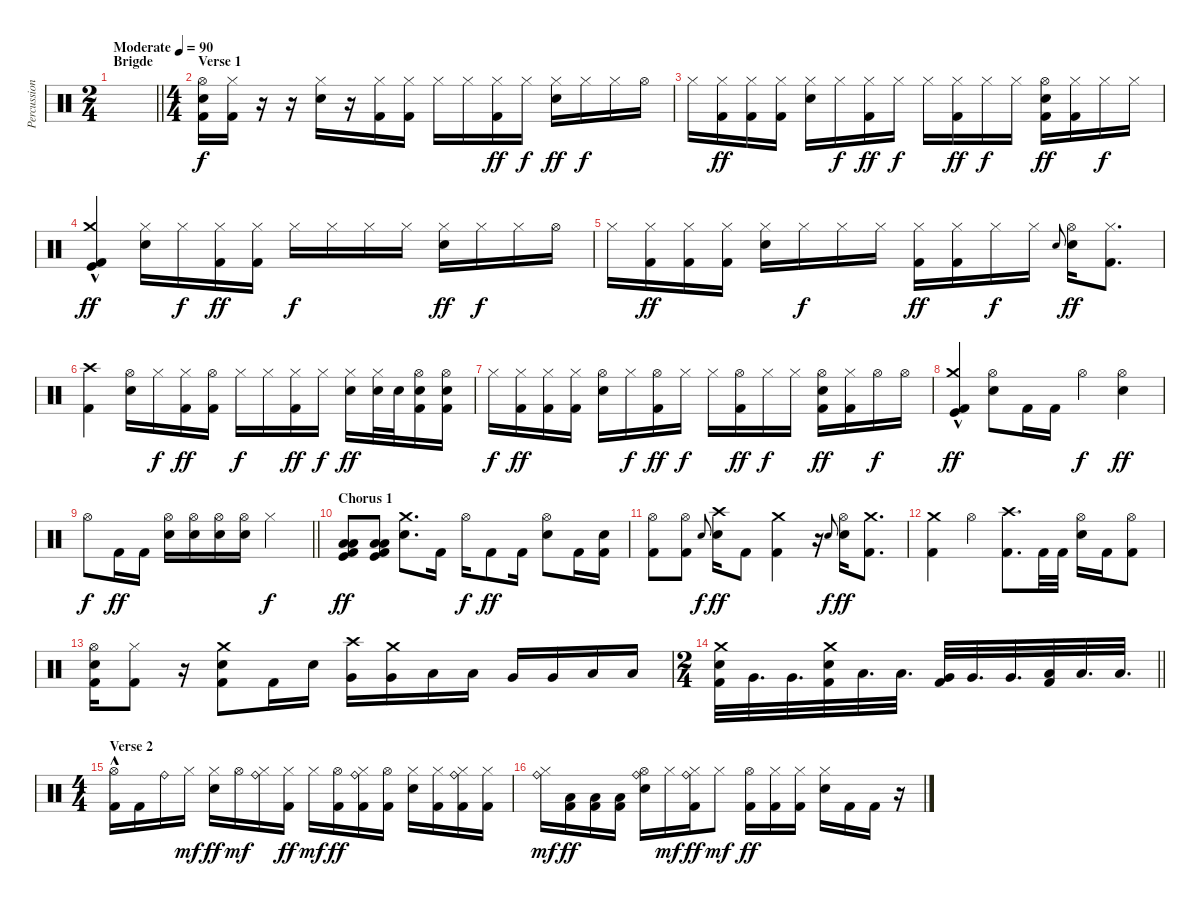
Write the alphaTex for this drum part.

\track ("Percussion" "Percussion") {instrument percussion}
\staff {score}
\articulation defaults
\ts (2 4)
\section ("" "Brigde")
\tempo (90 "Moderate")
\clef neutral
\barLineRight lightlight
\ks c
|
\ts (4 4)
\section ("" "Verse 1")
("Hi-Hat (open)" "Electric Snare (hit)" "Kick (hit) 2").16 ("Hi-Hat (closed)" "Kick (hit) 2").16 r.16 r.16 ("Hi-Hat (closed)" "Electric Snare (hit)").16 r.16 ("Hi-Hat (closed)" "Kick (hit) 2").16 ("Hi-Hat (closed)" "Kick (hit) 2").16 "Hi-Hat (closed)".16{dy f} "Hi-Hat (closed)".16 ("Hi-Hat (closed)" "Kick (hit) 2").16{dy ff} "Hi-Hat (closed)".16{dy f} ("Hi-Hat (closed)" "Electric Snare (hit)").16{dy ff} "Hi-Hat (closed)".16{dy f} "Hi-Hat (closed)".16 "Hi-Hat (open)".16 |
"Hi-Hat (closed)".16 ("Hi-Hat (closed)" "Kick (hit) 2").16{dy ff} ("Hi-Hat (closed)" "Kick (hit) 2").16 ("Hi-Hat (closed)" "Kick (hit) 2").16 ("Hi-Hat (closed)" "Electric Snare (hit)").16 "Hi-Hat (closed)".16{dy f} ("Hi-Hat (closed)" "Kick (hit) 2").16{dy ff} "Hi-Hat (closed)".16{dy f} "Hi-Hat (closed)".16 ("Hi-Hat (closed)" "Kick (hit) 2").16{dy ff} "Hi-Hat (closed)".16{dy f} "Hi-Hat (closed)".16 ("Hi-Hat (open)" "Electric Snare (hit)" "Kick (hit) 2").16{dy ff} ("Hi-Hat (closed)" "Kick (hit) 2").16 "Hi-Hat (closed)".16{dy f} "Hi-Hat (closed)".16 |
("Crash medium (hit)"{hac} "Kick (hit)" "Kick (hit) 2").4{dy ff} ("Hi-Hat (closed)" "Electric Snare (hit)").16 "Hi-Hat (closed)".16{dy f} ("Hi-Hat (closed)" "Kick (hit) 2").16{dy ff} ("Hi-Hat (closed)" "Kick (hit) 2").16 "Hi-Hat (closed)".16{dy f} "Hi-Hat (closed)".16 "Hi-Hat (closed)".16 "Hi-Hat (closed)".16 ("Hi-Hat (closed)" "Electric Snare (hit)").16{dy ff} "Hi-Hat (closed)".16{dy f} "Hi-Hat (closed)".16 "Hi-Hat (open)".16 |
"Hi-Hat (closed)".16 ("Hi-Hat (closed)" "Kick (hit) 2").16{dy ff} ("Hi-Hat (closed)" "Kick (hit) 2").16 ("Hi-Hat (closed)" "Kick (hit) 2").16 ("Hi-Hat (closed)" "Electric Snare (hit)").16 "Hi-Hat (closed)".16{dy f} "Hi-Hat (closed)".16 "Hi-Hat (closed)".16 ("Hi-Hat (closed)" "Kick (hit) 2").16{dy ff} ("Hi-Hat (closed)" "Kick (hit) 2").16 "Hi-Hat (closed)".16{dy f} "Hi-Hat (closed)".16 "Electric Snare (hit)".8{gr onbeat} ("Hi-Hat (open)" "Electric Snare (hit)").16{dy ff} ("Hi-Hat (closed)" "Kick (hit) 2").8{d} |
("Crash high (hit)" "Kick (hit) 2").4 ("Hi-Hat (open)" "Electric Snare (hit)").16 "Hi-Hat (closed)".16{dy f} ("Hi-Hat (closed)" "Kick (hit) 2").16{dy ff} ("Hi-Hat (open)" "Kick (hit) 2").16 "Hi-Hat (closed)".16{dy f} "Hi-Hat (closed)".16 ("Hi-Hat (closed)" "Kick (hit) 2").16{dy ff} "Hi-Hat (closed)".16{dy f} ("Hi-Hat (closed)" "Electric Snare (hit)").16{dy ff} ("Hi-Hat (closed)" "Electric Snare (hit)").32 "Electric Snare (hit)".32 ("Hi-Hat (open)" "Electric Snare (hit)" "Kick (hit) 2").16 ("Hi-Hat (open)" "Electric Snare (hit)" "Kick (hit) 2").16 |
"Hi-Hat (closed)".16{dy f} ("Hi-Hat (closed)" "Kick (hit) 2").16{dy ff} ("Hi-Hat (closed)" "Kick (hit) 2").16 ("Hi-Hat (closed)" "Kick (hit) 2").16 ("Hi-Hat (open)" "Electric Snare (hit)").16 "Hi-Hat (closed)".16{dy f} ("Hi-Hat (open)" "Kick (hit) 2").16{dy ff} "Hi-Hat (closed)".16{dy f} "Hi-Hat (closed)".16 ("Hi-Hat (open)" "Kick (hit) 2").16{dy ff} "Hi-Hat (closed)".16{dy f} "Hi-Hat (closed)".16 ("Hi-Hat (open)" "Electric Snare (hit)" "Kick (hit) 2").16{dy ff} ("Hi-Hat (closed)" "Kick (hit) 2").16 "Hi-Hat (open)".16{dy f} "Hi-Hat (open)".16 |
("Crash medium (hit)"{hac} "Kick (hit)" "Kick (hit) 2").4{dy ff} ("Hi-Hat (open)" "Electric Snare (hit)").8 "Kick (hit) 2".16 "Kick (hit) 2".16 "Hi-Hat (open)".4{dy f} ("Hi-Hat (open)" "Electric Snare (hit)").4{dy ff} |
\barLineRight lightlight "Hi-Hat (open)".8{dy f} "Kick (hit) 2".16{dy ff} "Kick (hit) 2".16
("Hi-Hat (open)" "Electric Snare (hit)").16 ("Hi-Hat (open)" "Electric Snare (hit)").16 ("Hi-Hat (open)" "Electric Snare (hit)").16 ("Hi-Hat (open)" "Electric Snare (hit)").16 "Hi-Hat (closed)".2{dy f} |
\section ("" "Chorus 1")
("Low Tom (hit)" "Low Floor Tom (hit)" "Kick (hit)" "Kick (hit) 2").8{dy ff} ("Low Tom (hit)" "Low Floor Tom (hit)" "Kick (hit)" "Kick (hit) 2").8 ("Crash medium (hit)" "Electric Snare (hit)").8{d} "Kick (hit) 2".16 "Hi-Hat (open)".16{dy f} "Kick (hit) 2".8{dy ff} "Kick (hit) 2".16 ("Hi-Hat (open)" "Electric Snare (hit)").8 "Kick (hit) 2".16 ("Electric Snare (hit)" "Kick (hit) 2").16 |
("Hi-Hat (open)" "Kick (hit) 2").8 ("Hi-Hat (open)" "Kick (hit) 2").8 "Electric Snare (hit)".8{gr onbeat dy f} ("Crash high (hit)" "Electric Snare (hit)").16{dy ff} "Kick (hit) 2".8 ("Crash medium (hit)" "Kick (hit) 2").4 r.16 "Electric Snare (hit)".8{gr onbeat dy f} ("Hi-Hat (open)" "Electric Snare (hit)").16{dy ff} ("Crash medium (hit)" "Kick (hit) 2").8{d} |
("Crash medium (hit)" "Kick (hit) 2").4 "Hi-Hat (open)".4 ("Crash high (hit)" "Kick (hit) 2").8{d} "Kick (hit) 2".32 "Kick (hit) 2".32 ("Hi-Hat (open)" "Electric Snare (hit)").16 "Kick (hit) 2".16 ("Hi-Hat (open)" "Kick (hit) 2").8 |
("Hi-Hat (open)" "Electric Snare (hit)" "Kick (hit) 2").16 ("Hi-Hat (closed)" "Kick (hit) 2").8 r.16 ("Crash medium (hit)" "Electric Snare (hit)" "Kick (hit) 2").8 "Kick (hit) 2".16 "Electric Snare (hit)".16 ("Crash high (hit)" "Very Low Tom (hit)").16 ("Crash medium (hit)" "Very Low Tom (hit)").16 "Low Tom (hit)".16 "Low Tom (hit)".16 "Very Low Tom (hit)".16 "Very Low Tom (hit)".16 "Low Floor Tom (hit)".16 "Low Floor Tom (hit)".16 |
\ts (2 4)
\barLineRight lightlight
("Crash medium (hit)" "Electric Snare (hit)" "Kick (hit) 2").32 "Very Low Tom (hit)".32{d} "Very Low Tom (hit)".32{d} ("Crash medium (hit)" "Electric Snare (hit)" "Kick (hit) 2").32 "Low Floor Tom (hit)".32{d} "Low Floor Tom (hit)".32{d} ("Very Low Tom (hit)" "Kick (hit) 2").32 "Very Low Tom (hit)".32{d} "Very Low Tom (hit)".32{d} ("Low Tom (hit)" "Kick (hit) 2").32 "Low Tom (hit)".32{d} "Low Tom (hit)".32{d} |
\ts (4 4)
\section ("" "Verse 2")
("Hi-Hat (open)"{hac} "Kick (hit) 2").16 "Kick (hit) 2".16 "Ride (bell)".16 "Hi-Hat (closed)".16{dy mf} ("Hi-Hat (closed)" "Electric Snare (hit)").16{dy ff} "Hi-Hat (open)".16{dy mf} ("Ride (bell)" "Hi-Hat (closed)").16 ("Hi-Hat (closed)" "Kick (hit) 2").16{dy ff} "Hi-Hat (closed)".16{dy mf} ("Hi-Hat (open)" "Kick (hit) 2").16{dy ff} ("Ride (bell)" "Hi-Hat (closed)" "Kick (hit) 2").16 ("Hi-Hat (open)" "Kick (hit) 2").16 ("Hi-Hat (closed)" "Electric Snare (hit)").16 ("Hi-Hat (closed)" "Kick (hit) 2").16 ("Ride (bell)" "Hi-Hat (closed)" "Kick (hit) 2").16 ("Hi-Hat (closed)" "Kick (hit) 2").16 |
("Ride (bell)" "Hi-Hat (closed)").16{dy mf} ("Low Tom (hit)" "Kick (hit) 2").16{dy ff} ("Low Tom (hit)" "Kick (hit) 2").16 ("Low Tom (hit)" "Kick (hit) 2").16 ("Ride (bell)" "Hi-Hat (open)" "Electric Snare (hit)").16 "Hi-Hat (closed)".16{dy mf} ("Ride (bell)" "Hi-Hat (closed)" "Kick (hit) 2").16{dy ff} "Hi-Hat (closed)".8{dy mf} ("Hi-Hat (open)" "Kick (hit) 2").16{dy ff} ("Hi-Hat (closed)" "Kick (hit) 2").16 ("Hi-Hat (closed)" "Kick (hit) 2").16 ("Hi-Hat (closed)" "Electric Snare (hit)").16 "Kick (hit) 2".16 "Kick (hit) 2".16 r.16
